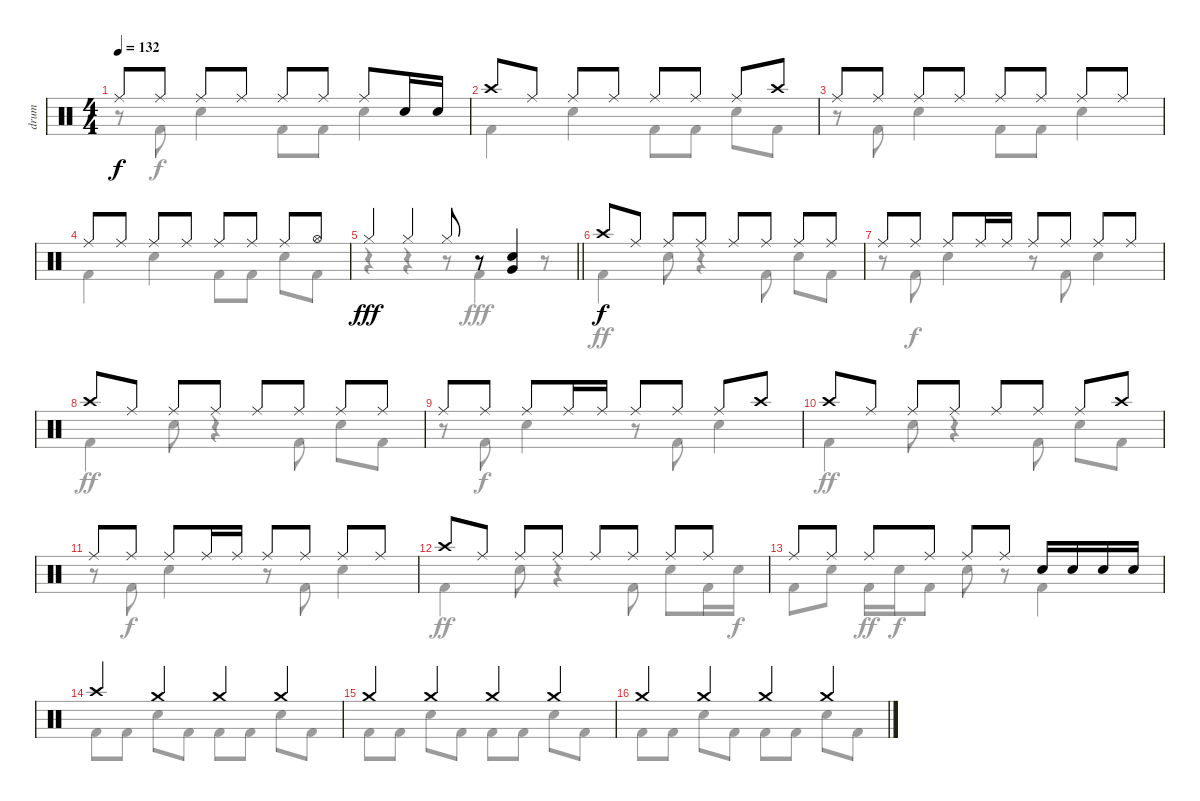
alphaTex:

\track ("drum" "drum") {instrument percussion}
\staff {score}
\articulation defaults
\voice
\ts (4 4)
\tempo 132
\clef neutral
\ks c "Ride (middle)".8{dy f} "Ride (middle)".8 "Ride (middle)".8 "Ride (middle)".8 "Ride (middle)".8 "Ride (middle)".8 "Ride (middle)".8 "Snare (hit) 2".16 "Snare (hit) 2".16
|
"Crash high (hit)".8 "Ride (middle)".8 "Ride (middle)".8 "Ride (middle)".8 "Ride (middle)".8 "Ride (middle)".8 "Ride (middle)".8 "Crash high (hit)".8 |
"Ride (middle)".8 "Ride (middle)".8 "Ride (middle)".8 "Ride (middle)".8 "Ride (middle)".8 "Ride (middle)".8 "Ride (middle)".8 "Ride (middle)".8 |
"Ride (middle)".8 "Ride (middle)".8 "Ride (middle)".8 "Ride (middle)".8 "Ride (middle)".8 "Ride (middle)".8 "Ride (middle)".8 "Hi-Hat (open)".8 |
\barLineRight lightlight "Hi-Hat (closed)".4{dy fff} "Hi-Hat (closed)".4 "Hi-Hat (closed)".8
r.8 ("Very Low Tom (hit)" "Snare (hit) 2").4 |
"Crash high (hit)".8{dy f} "Ride (middle)".8 "Ride (middle)".8 "Ride (middle)".8 "Ride (middle)".8 "Ride (middle)".8 "Ride (middle)".8 "Ride (middle)".8 |
"Ride (middle)".8 "Ride (middle)".8 "Ride (middle)".8 "Ride (middle)".16 "Ride (middle)".16 "Ride (middle)".8 "Ride (middle)".8 "Ride (middle)".8 "Ride (middle)".8 |
"Crash high (hit)".8 "Ride (middle)".8 "Ride (middle)".8 "Ride (middle)".8 "Ride (middle)".8 "Ride (middle)".8 "Ride (middle)".8 "Ride (middle)".8 |
"Ride (middle)".8 "Ride (middle)".8 "Ride (middle)".8 "Ride (middle)".16 "Ride (middle)".16 "Ride (middle)".8 "Ride (middle)".8 "Ride (middle)".8 "Crash high (hit)".8 |
"Crash high (hit)".8 "Ride (middle)".8 "Ride (middle)".8 "Ride (middle)".8 "Ride (middle)".8 "Ride (middle)".8 "Ride (middle)".8 "Crash high (hit)".8 |
"Ride (middle)".8 "Ride (middle)".8 "Ride (middle)".8 "Ride (middle)".16 "Ride (middle)".16 "Ride (middle)".8 "Ride (middle)".8 "Ride (middle)".8 "Ride (middle)".8 |
"Crash high (hit)".8 "Ride (middle)".8 "Ride (middle)".8 "Ride (middle)".8 "Ride (middle)".8 "Ride (middle)".8 "Ride (middle)".8 "Ride (middle)".8 |
"Ride (middle)".8 "Ride (middle)".8 "Ride (middle)".8 "Ride (middle)".8 "Ride (middle)".8 "Ride (middle)".8 "Snare (hit) 2".16 "Snare (hit) 2".16 "Snare (hit) 2".16 "Snare (hit) 2".16 |
"Crash high (hit)".4 "Crash medium (hit)".4 "Crash medium (hit)".4 "Crash medium (hit)".4 |
"Crash medium (hit)".4 "Crash medium (hit)".4 "Crash medium (hit)".4 "Crash medium (hit)".4 |
"Crash medium (hit)".4 "Crash medium (hit)".4 "Crash medium (hit)".4 "Crash medium (hit)".4
\voice
\clef neutral
\ottava regular
\simile none
\ks c
r.8{dy f} "Kick (hit) 2".8 "Snare (hit) 2".4 "Kick (hit) 2".8 "Kick (hit) 2".8 "Snare (hit) 2".4 |
"Kick (hit) 2".4 "Snare (hit) 2".4 "Kick (hit) 2".8 "Kick (hit) 2".8 "Snare (hit) 2".8 "Kick (hit) 2".8 |
r.8 "Kick (hit) 2".8 "Snare (hit) 2".4 "Kick (hit) 2".8 "Kick (hit) 2".8 "Snare (hit) 2".4 |
"Kick (hit) 2".4 "Snare (hit) 2".4 "Kick (hit) 2".8 "Kick (hit) 2".8 "Snare (hit) 2".8 "Kick (hit) 2".8 |
\barLineRight lightlight
r.4 r.4 r.8 "Kick (hit) 2".4{dy fff} r.8 |
"Kick (hit) 2".4{dy ff} "Snare (hit) 2".8 r.4 "Kick (hit) 2".8 "Snare (hit) 2".8 "Kick (hit) 2".8 |
r.8 "Kick (hit) 2".8{dy f} "Snare (hit) 2".4 r.8 "Kick (hit) 2".8 "Snare (hit) 2".4 |
"Kick (hit) 2".4{dy ff} "Snare (hit) 2".8 r.4 "Kick (hit) 2".8 "Snare (hit) 2".8 "Kick (hit) 2".8 |
r.8 "Kick (hit) 2".8{dy f} "Snare (hit) 2".4 r.8 "Kick (hit) 2".8 "Snare (hit) 2".4 |
"Kick (hit) 2".4{dy ff} "Snare (hit) 2".8 r.4 "Kick (hit) 2".8 "Snare (hit) 2".8 "Kick (hit) 2".8 |
r.8 "Kick (hit) 2".8{dy f} "Snare (hit) 2".4 r.8 "Kick (hit) 2".8 "Snare (hit) 2".4 |
"Kick (hit) 2".4{dy ff} "Snare (hit) 2".8 r.4 "Kick (hit) 2".8 "Snare (hit) 2".8 "Kick (hit) 2".16 "Snare (hit) 2".16{dy f} |
"Kick (hit) 2".8 "Snare (hit) 2".8 "Kick (hit) 2".16{dy ff} "Snare (hit) 2".16{dy f} "Kick (hit) 2".8 "Snare (hit) 2".8 r.8 "Kick (hit) 2".4 |
"Kick (hit) 2".8 "Kick (hit) 2".8 "Snare (hit) 2".8 "Kick (hit) 2".8 "Kick (hit) 2".8 "Kick (hit) 2".8 "Snare (hit) 2".8 "Kick (hit) 2".8 |
"Kick (hit) 2".8 "Kick (hit) 2".8 "Snare (hit) 2".8 "Kick (hit) 2".8 "Kick (hit) 2".8 "Kick (hit) 2".8 "Snare (hit) 2".8 "Kick (hit) 2".8 |
"Kick (hit) 2".8 "Kick (hit) 2".8 "Snare (hit) 2".8 "Kick (hit) 2".8 "Kick (hit) 2".8 "Kick (hit) 2".8 "Snare (hit) 2".8 "Kick (hit) 2".8
